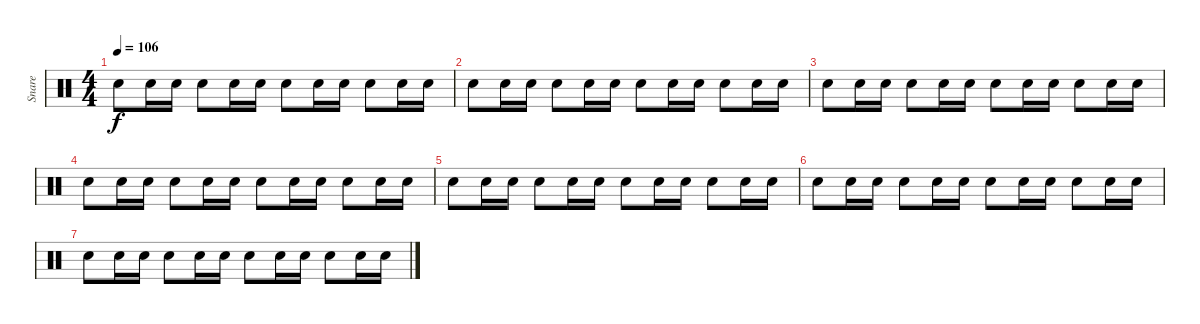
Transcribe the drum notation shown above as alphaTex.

\track ("Snare" "Snare") {instrument percussion}
\staff {score}
\articulation defaults
\ts (4 4)
\tempo 106
\clef neutral
\ks c "Electric Snare (hit)".8{dy f} "Electric Snare (hit)".16 "Electric Snare (hit)".16 "Electric Snare (hit)".8 "Electric Snare (hit)".16 "Electric Snare (hit)".16 "Electric Snare (hit)".8 "Electric Snare (hit)".16 "Electric Snare (hit)".16 "Electric Snare (hit)".8 "Electric Snare (hit)".16 "Electric Snare (hit)".16
|
"Electric Snare (hit)".8 "Electric Snare (hit)".16 "Electric Snare (hit)".16 "Electric Snare (hit)".8 "Electric Snare (hit)".16 "Electric Snare (hit)".16 "Electric Snare (hit)".8 "Electric Snare (hit)".16 "Electric Snare (hit)".16 "Electric Snare (hit)".8 "Electric Snare (hit)".16 "Electric Snare (hit)".16 |
"Electric Snare (hit)".8 "Electric Snare (hit)".16 "Electric Snare (hit)".16 "Electric Snare (hit)".8 "Electric Snare (hit)".16 "Electric Snare (hit)".16 "Electric Snare (hit)".8 "Electric Snare (hit)".16 "Electric Snare (hit)".16 "Electric Snare (hit)".8 "Electric Snare (hit)".16 "Electric Snare (hit)".16 |
"Electric Snare (hit)".8 "Electric Snare (hit)".16 "Electric Snare (hit)".16 "Electric Snare (hit)".8 "Electric Snare (hit)".16 "Electric Snare (hit)".16 "Electric Snare (hit)".8 "Electric Snare (hit)".16 "Electric Snare (hit)".16 "Electric Snare (hit)".8 "Electric Snare (hit)".16 "Electric Snare (hit)".16 |
"Electric Snare (hit)".8 "Electric Snare (hit)".16 "Electric Snare (hit)".16 "Electric Snare (hit)".8 "Electric Snare (hit)".16 "Electric Snare (hit)".16 "Electric Snare (hit)".8 "Electric Snare (hit)".16 "Electric Snare (hit)".16 "Electric Snare (hit)".8 "Electric Snare (hit)".16 "Electric Snare (hit)".16 |
"Electric Snare (hit)".8 "Electric Snare (hit)".16 "Electric Snare (hit)".16 "Electric Snare (hit)".8 "Electric Snare (hit)".16 "Electric Snare (hit)".16 "Electric Snare (hit)".8 "Electric Snare (hit)".16 "Electric Snare (hit)".16 "Electric Snare (hit)".8 "Electric Snare (hit)".16 "Electric Snare (hit)".16 |
"Electric Snare (hit)".8 "Electric Snare (hit)".16 "Electric Snare (hit)".16 "Electric Snare (hit)".8 "Electric Snare (hit)".16 "Electric Snare (hit)".16 "Electric Snare (hit)".8 "Electric Snare (hit)".16 "Electric Snare (hit)".16 "Electric Snare (hit)".8 "Electric Snare (hit)".16 "Electric Snare (hit)".16
